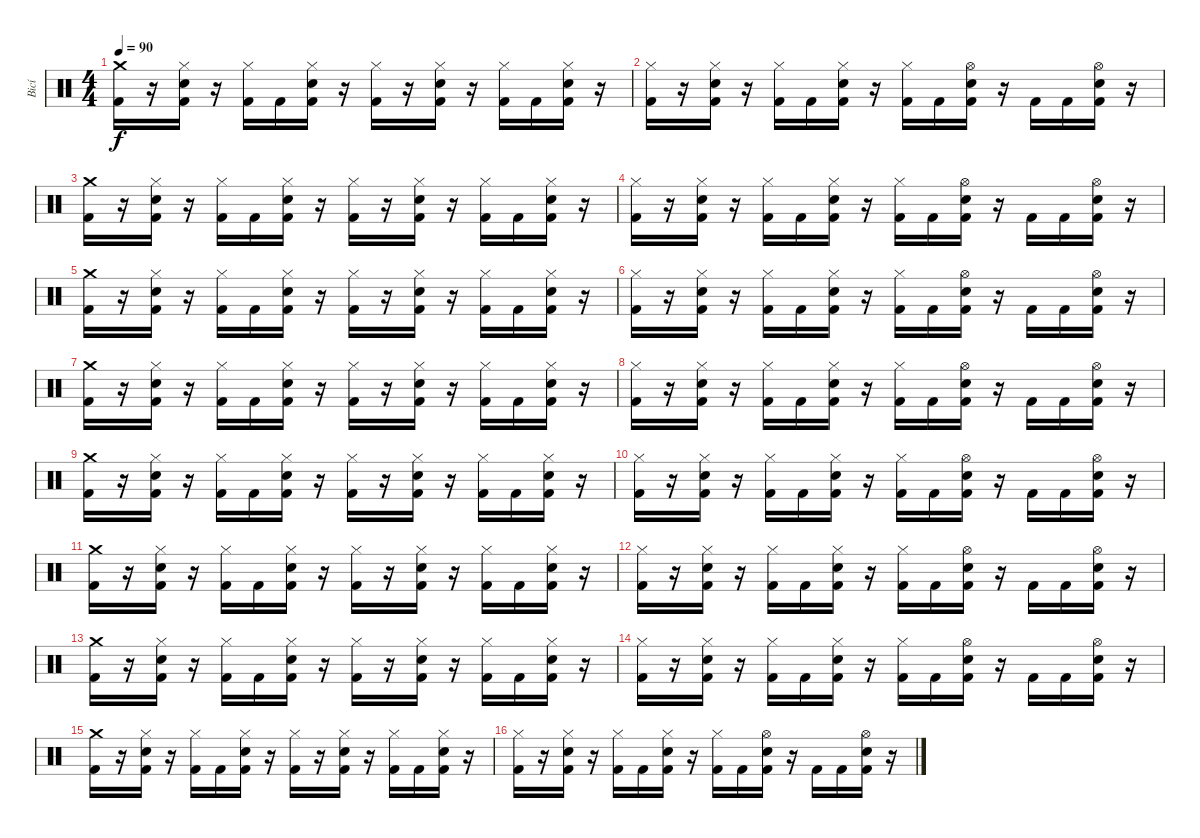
\track ("Bicí" "Bicí") {instrument percussion}
\staff {score}
\articulation defaults
\ts (4 4)
\tempo 90
\clef neutral
\ks c
("Crash medium (hit)" "Kick (hit) 2").16{dy f} r.16 ("Hi-Hat (closed)" "Electric Snare (hit)" "Kick (hit) 2").16 r.16 ("Hi-Hat (closed)" "Kick (hit) 2").16 "Kick (hit) 2".16 ("Hi-Hat (closed)" "Electric Snare (hit)" "Kick (hit) 2").16 r.16 ("Hi-Hat (closed)" "Kick (hit) 2").16 r.16 ("Hi-Hat (closed)" "Electric Snare (hit)" "Kick (hit) 2").16 r.16 ("Hi-Hat (closed)" "Kick (hit) 2").16 "Kick (hit) 2".16 ("Hi-Hat (closed)" "Electric Snare (hit)" "Kick (hit) 2").16 r.16 |
("Hi-Hat (closed)" "Kick (hit) 2").16 r.16 ("Hi-Hat (closed)" "Electric Snare (hit)" "Kick (hit) 2").16 r.16 ("Hi-Hat (closed)" "Kick (hit) 2").16 "Kick (hit) 2".16 ("Hi-Hat (closed)" "Electric Snare (hit)" "Kick (hit) 2").16 r.16 ("Hi-Hat (closed)" "Kick (hit) 2").16 "Kick (hit) 2".16 ("Hi-Hat (open)" "Electric Snare (hit)" "Kick (hit) 2").16 r.16 "Kick (hit) 2".16 "Kick (hit) 2".16 ("Hi-Hat (open)" "Electric Snare (hit)" "Kick (hit) 2").16 r.16 |
("Crash medium (hit)" "Kick (hit) 2").16 r.16 ("Hi-Hat (closed)" "Electric Snare (hit)" "Kick (hit) 2").16 r.16 ("Hi-Hat (closed)" "Kick (hit) 2").16 "Kick (hit) 2".16 ("Hi-Hat (closed)" "Electric Snare (hit)" "Kick (hit) 2").16 r.16 ("Hi-Hat (closed)" "Kick (hit) 2").16 r.16 ("Hi-Hat (closed)" "Electric Snare (hit)" "Kick (hit) 2").16 r.16 ("Hi-Hat (closed)" "Kick (hit) 2").16 "Kick (hit) 2".16 ("Hi-Hat (closed)" "Electric Snare (hit)" "Kick (hit) 2").16 r.16 |
("Hi-Hat (closed)" "Kick (hit) 2").16 r.16 ("Hi-Hat (closed)" "Electric Snare (hit)" "Kick (hit) 2").16 r.16 ("Hi-Hat (closed)" "Kick (hit) 2").16 "Kick (hit) 2".16 ("Hi-Hat (closed)" "Electric Snare (hit)" "Kick (hit) 2").16 r.16 ("Hi-Hat (closed)" "Kick (hit) 2").16 "Kick (hit) 2".16 ("Hi-Hat (open)" "Electric Snare (hit)" "Kick (hit) 2").16 r.16 "Kick (hit) 2".16 "Kick (hit) 2".16 ("Hi-Hat (open)" "Electric Snare (hit)" "Kick (hit) 2").16 r.16 |
("Crash medium (hit)" "Kick (hit) 2").16 r.16 ("Hi-Hat (closed)" "Electric Snare (hit)" "Kick (hit) 2").16 r.16 ("Hi-Hat (closed)" "Kick (hit) 2").16 "Kick (hit) 2".16 ("Hi-Hat (closed)" "Electric Snare (hit)" "Kick (hit) 2").16 r.16 ("Hi-Hat (closed)" "Kick (hit) 2").16 r.16 ("Hi-Hat (closed)" "Electric Snare (hit)" "Kick (hit) 2").16 r.16 ("Hi-Hat (closed)" "Kick (hit) 2").16 "Kick (hit) 2".16 ("Hi-Hat (closed)" "Electric Snare (hit)" "Kick (hit) 2").16 r.16 |
("Hi-Hat (closed)" "Kick (hit) 2").16 r.16 ("Hi-Hat (closed)" "Electric Snare (hit)" "Kick (hit) 2").16 r.16 ("Hi-Hat (closed)" "Kick (hit) 2").16 "Kick (hit) 2".16 ("Hi-Hat (closed)" "Electric Snare (hit)" "Kick (hit) 2").16 r.16 ("Hi-Hat (closed)" "Kick (hit) 2").16 "Kick (hit) 2".16 ("Hi-Hat (open)" "Electric Snare (hit)" "Kick (hit) 2").16 r.16 "Kick (hit) 2".16 "Kick (hit) 2".16 ("Hi-Hat (open)" "Electric Snare (hit)" "Kick (hit) 2").16 r.16 |
("Crash medium (hit)" "Kick (hit) 2").16 r.16 ("Hi-Hat (closed)" "Electric Snare (hit)" "Kick (hit) 2").16 r.16 ("Hi-Hat (closed)" "Kick (hit) 2").16 "Kick (hit) 2".16 ("Hi-Hat (closed)" "Electric Snare (hit)" "Kick (hit) 2").16 r.16 ("Hi-Hat (closed)" "Kick (hit) 2").16 r.16 ("Hi-Hat (closed)" "Electric Snare (hit)" "Kick (hit) 2").16 r.16 ("Hi-Hat (closed)" "Kick (hit) 2").16 "Kick (hit) 2".16 ("Hi-Hat (closed)" "Electric Snare (hit)" "Kick (hit) 2").16 r.16 |
("Hi-Hat (closed)" "Kick (hit) 2").16 r.16 ("Hi-Hat (closed)" "Electric Snare (hit)" "Kick (hit) 2").16 r.16 ("Hi-Hat (closed)" "Kick (hit) 2").16 "Kick (hit) 2".16 ("Hi-Hat (closed)" "Electric Snare (hit)" "Kick (hit) 2").16 r.16 ("Hi-Hat (closed)" "Kick (hit) 2").16 "Kick (hit) 2".16 ("Hi-Hat (open)" "Electric Snare (hit)" "Kick (hit) 2").16 r.16 "Kick (hit) 2".16 "Kick (hit) 2".16 ("Hi-Hat (open)" "Electric Snare (hit)" "Kick (hit) 2").16 r.16 |
("Crash medium (hit)" "Kick (hit) 2").16 r.16 ("Hi-Hat (closed)" "Electric Snare (hit)" "Kick (hit) 2").16 r.16 ("Hi-Hat (closed)" "Kick (hit) 2").16 "Kick (hit) 2".16 ("Hi-Hat (closed)" "Electric Snare (hit)" "Kick (hit) 2").16 r.16 ("Hi-Hat (closed)" "Kick (hit) 2").16 r.16 ("Hi-Hat (closed)" "Electric Snare (hit)" "Kick (hit) 2").16 r.16 ("Hi-Hat (closed)" "Kick (hit) 2").16 "Kick (hit) 2".16 ("Hi-Hat (closed)" "Electric Snare (hit)" "Kick (hit) 2").16 r.16 |
("Hi-Hat (closed)" "Kick (hit) 2").16 r.16 ("Hi-Hat (closed)" "Electric Snare (hit)" "Kick (hit) 2").16 r.16 ("Hi-Hat (closed)" "Kick (hit) 2").16 "Kick (hit) 2".16 ("Hi-Hat (closed)" "Electric Snare (hit)" "Kick (hit) 2").16 r.16 ("Hi-Hat (closed)" "Kick (hit) 2").16 "Kick (hit) 2".16 ("Hi-Hat (open)" "Electric Snare (hit)" "Kick (hit) 2").16 r.16 "Kick (hit) 2".16 "Kick (hit) 2".16 ("Hi-Hat (open)" "Electric Snare (hit)" "Kick (hit) 2").16 r.16 |
("Crash medium (hit)" "Kick (hit) 2").16 r.16 ("Hi-Hat (closed)" "Electric Snare (hit)" "Kick (hit) 2").16 r.16 ("Hi-Hat (closed)" "Kick (hit) 2").16 "Kick (hit) 2".16 ("Hi-Hat (closed)" "Electric Snare (hit)" "Kick (hit) 2").16 r.16 ("Hi-Hat (closed)" "Kick (hit) 2").16 r.16 ("Hi-Hat (closed)" "Electric Snare (hit)" "Kick (hit) 2").16 r.16 ("Hi-Hat (closed)" "Kick (hit) 2").16 "Kick (hit) 2".16 ("Hi-Hat (closed)" "Electric Snare (hit)" "Kick (hit) 2").16 r.16 |
("Hi-Hat (closed)" "Kick (hit) 2").16 r.16 ("Hi-Hat (closed)" "Electric Snare (hit)" "Kick (hit) 2").16 r.16 ("Hi-Hat (closed)" "Kick (hit) 2").16 "Kick (hit) 2".16 ("Hi-Hat (closed)" "Electric Snare (hit)" "Kick (hit) 2").16 r.16 ("Hi-Hat (closed)" "Kick (hit) 2").16 "Kick (hit) 2".16 ("Hi-Hat (open)" "Electric Snare (hit)" "Kick (hit) 2").16 r.16 "Kick (hit) 2".16 "Kick (hit) 2".16 ("Hi-Hat (open)" "Electric Snare (hit)" "Kick (hit) 2").16 r.16 |
("Crash medium (hit)" "Kick (hit) 2").16 r.16 ("Hi-Hat (closed)" "Electric Snare (hit)" "Kick (hit) 2").16 r.16 ("Hi-Hat (closed)" "Kick (hit) 2").16 "Kick (hit) 2".16 ("Hi-Hat (closed)" "Electric Snare (hit)" "Kick (hit) 2").16 r.16 ("Hi-Hat (closed)" "Kick (hit) 2").16 r.16 ("Hi-Hat (closed)" "Electric Snare (hit)" "Kick (hit) 2").16 r.16 ("Hi-Hat (closed)" "Kick (hit) 2").16 "Kick (hit) 2".16 ("Hi-Hat (closed)" "Electric Snare (hit)" "Kick (hit) 2").16 r.16 |
("Hi-Hat (closed)" "Kick (hit) 2").16 r.16 ("Hi-Hat (closed)" "Electric Snare (hit)" "Kick (hit) 2").16 r.16 ("Hi-Hat (closed)" "Kick (hit) 2").16 "Kick (hit) 2".16 ("Hi-Hat (closed)" "Electric Snare (hit)" "Kick (hit) 2").16 r.16 ("Hi-Hat (closed)" "Kick (hit) 2").16 "Kick (hit) 2".16 ("Hi-Hat (open)" "Electric Snare (hit)" "Kick (hit) 2").16 r.16 "Kick (hit) 2".16 "Kick (hit) 2".16 ("Hi-Hat (open)" "Electric Snare (hit)" "Kick (hit) 2").16 r.16 |
("Crash medium (hit)" "Kick (hit) 2").16 r.16 ("Hi-Hat (closed)" "Electric Snare (hit)" "Kick (hit) 2").16 r.16 ("Hi-Hat (closed)" "Kick (hit) 2").16 "Kick (hit) 2".16 ("Hi-Hat (closed)" "Electric Snare (hit)" "Kick (hit) 2").16 r.16 ("Hi-Hat (closed)" "Kick (hit) 2").16 r.16 ("Hi-Hat (closed)" "Electric Snare (hit)" "Kick (hit) 2").16 r.16 ("Hi-Hat (closed)" "Kick (hit) 2").16 "Kick (hit) 2".16 ("Hi-Hat (closed)" "Electric Snare (hit)" "Kick (hit) 2").16 r.16 |
("Hi-Hat (closed)" "Kick (hit) 2").16 r.16 ("Hi-Hat (closed)" "Electric Snare (hit)" "Kick (hit) 2").16 r.16 ("Hi-Hat (closed)" "Kick (hit) 2").16 "Kick (hit) 2".16 ("Hi-Hat (closed)" "Electric Snare (hit)" "Kick (hit) 2").16 r.16 ("Hi-Hat (closed)" "Kick (hit) 2").16 "Kick (hit) 2".16 ("Hi-Hat (open)" "Electric Snare (hit)" "Kick (hit) 2").16 r.16 "Kick (hit) 2".16 "Kick (hit) 2".16 ("Hi-Hat (open)" "Electric Snare (hit)" "Kick (hit) 2").16 r.16
